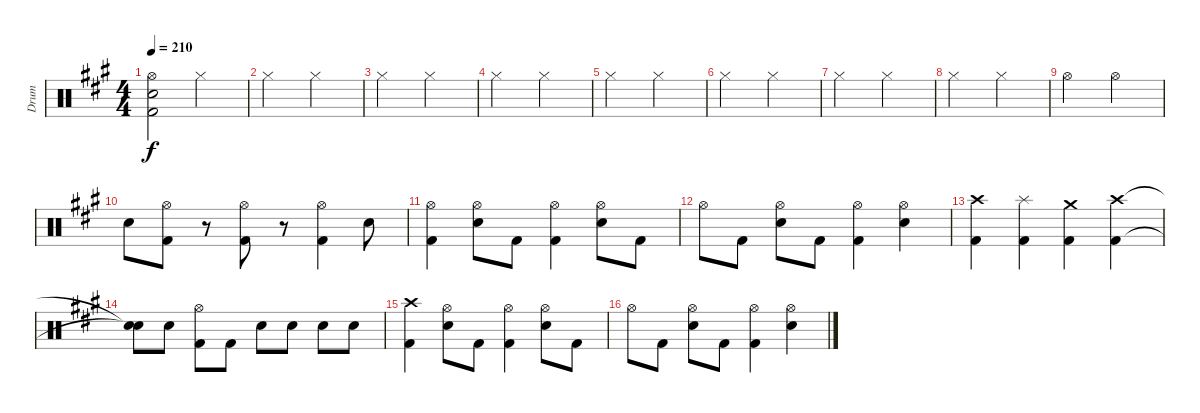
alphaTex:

\track ("Drum" "Drum") {instrument percussion}
\staff {score}
\articulation defaults
\ts (4 4)
\tempo 210
\clef neutral
\ks a
("Hi-Hat (open)" "Electric Snare (hit)" "Kick (hit) 2").2{dy f} "Hi-Hat (closed)".2 |
"Hi-Hat (closed)".2 "Hi-Hat (closed)".2 |
"Hi-Hat (closed)".2 "Hi-Hat (closed)".2 |
"Hi-Hat (closed)".2 "Hi-Hat (closed)".2 |
"Hi-Hat (closed)".2 "Hi-Hat (closed)".2 |
"Hi-Hat (closed)".2 "Hi-Hat (closed)".2 |
"Hi-Hat (closed)".2 "Hi-Hat (closed)".2 |
"Hi-Hat (closed)".2 "Hi-Hat (closed)".2 |
"Hi-Hat (open)".2 "Hi-Hat (open)".2 |
"Electric Snare (hit)".8 ("Hi-Hat (open)" "Kick (hit) 2").8 r.8 ("Hi-Hat (open)" "Kick (hit) 2").8 r.8 ("Hi-Hat (open)" "Kick (hit) 2").4 "Electric Snare (hit)".8 |
("Hi-Hat (open)" "Kick (hit) 2").4 ("Hi-Hat (open)" "Electric Snare (hit)").8 "Kick (hit) 2".8 ("Hi-Hat (open)" "Kick (hit) 2").4 ("Hi-Hat (open)" "Electric Snare (hit)").8 "Kick (hit) 2".8 |
"Hi-Hat (open)".8 "Kick (hit) 2".8 ("Hi-Hat (open)" "Electric Snare (hit)").8 "Kick (hit) 2".8 ("Hi-Hat (open)" "Kick (hit) 2").4 ("Hi-Hat (open)" "Electric Snare (hit)").4 |
("Crash high (hit)" "Kick (hit) 2").4 ("Splash (hit)" "Kick (hit) 2").4 ("Crash medium (hit)" "Kick (hit) 2").4 ("Crash high (hit)" "Kick (hit) 2").4 |
("Snare (hit)"{t} "Snare (hit)"{t}).8 "Electric Snare (hit)".8 ("Hi-Hat (open)" "Kick (hit) 2").8 "Kick (hit) 2".8 "Electric Snare (hit)".8 "Electric Snare (hit)".8 "Electric Snare (hit)".8 "Electric Snare (hit)".8 |
("Crash high (hit)" "Kick (hit) 2").4 ("Hi-Hat (open)" "Electric Snare (hit)").8 "Kick (hit) 2".8 ("Hi-Hat (open)" "Kick (hit) 2").4 ("Hi-Hat (open)" "Electric Snare (hit)").8 "Kick (hit) 2".8 |
"Hi-Hat (open)".8 "Kick (hit) 2".8 ("Hi-Hat (open)" "Electric Snare (hit)").8 "Kick (hit) 2".8 ("Hi-Hat (open)" "Kick (hit) 2").4 ("Hi-Hat (open)" "Electric Snare (hit)").4
